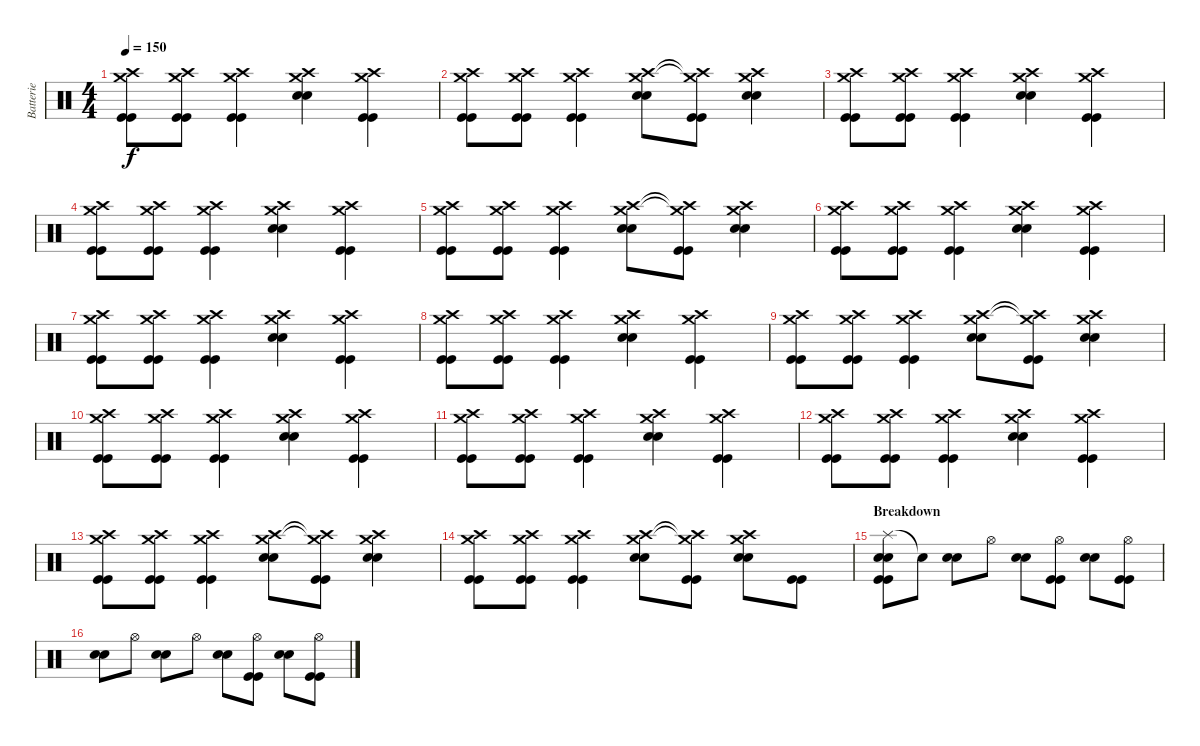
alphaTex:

\track ("Batterie" "Batterie") {instrument percussion}
\staff {score}
\articulation defaults
\ts (4 4)
\tempo 150
\clef neutral
\ks c
("Crash high (hit)" "Crash medium (hit)" "Kick (hit)" "Kick (hit)").8{dy f} ("Crash high (hit)" "Crash medium (hit)" "Kick (hit)" "Kick (hit)").8 ("Crash high (hit)" "Crash medium (hit)" "Kick (hit)" "Kick (hit)").4 ("Crash high (hit)" "Crash medium (hit)" "Electric Snare (hit)" "Electric Snare (hit)").4 ("Crash high (hit)" "Crash medium (hit)" "Kick (hit)" "Kick (hit)").4 |
("Crash high (hit)" "Crash medium (hit)" "Kick (hit)" "Kick (hit)").8 ("Crash high (hit)" "Crash medium (hit)" "Kick (hit)" "Kick (hit)").8 ("Crash high (hit)" "Crash medium (hit)" "Kick (hit)" "Kick (hit)").4 ("Crash high (hit)" "Crash medium (hit)" "Electric Snare (hit)" "Electric Snare (hit)").8 ("Crash high (hit)"{t} "Crash medium (hit)"{t} "Kick (hit)" "Kick (hit)").8 ("Crash high (hit)" "Crash medium (hit)" "Electric Snare (hit)" "Electric Snare (hit)").4 |
("Crash high (hit)" "Crash medium (hit)" "Kick (hit)" "Kick (hit)").8 ("Crash high (hit)" "Crash medium (hit)" "Kick (hit)" "Kick (hit)").8 ("Crash high (hit)" "Crash medium (hit)" "Kick (hit)" "Kick (hit)").4 ("Crash high (hit)" "Crash medium (hit)" "Electric Snare (hit)" "Electric Snare (hit)").4 ("Crash high (hit)" "Crash medium (hit)" "Kick (hit)" "Kick (hit)").4 |
("Crash high (hit)" "Crash medium (hit)" "Kick (hit)" "Kick (hit)").8 ("Crash high (hit)" "Crash medium (hit)" "Kick (hit)" "Kick (hit)").8 ("Crash high (hit)" "Crash medium (hit)" "Kick (hit)" "Kick (hit)").4 ("Crash high (hit)" "Crash medium (hit)" "Electric Snare (hit)" "Electric Snare (hit)").4 ("Crash high (hit)" "Crash medium (hit)" "Kick (hit)" "Kick (hit)").4 |
("Crash high (hit)" "Crash medium (hit)" "Kick (hit)" "Kick (hit)").8 ("Crash high (hit)" "Crash medium (hit)" "Kick (hit)" "Kick (hit)").8 ("Crash high (hit)" "Crash medium (hit)" "Kick (hit)" "Kick (hit)").4 ("Crash high (hit)" "Crash medium (hit)" "Electric Snare (hit)" "Electric Snare (hit)").8 ("Crash high (hit)"{t} "Crash medium (hit)"{t} "Kick (hit)" "Kick (hit)").8 ("Crash high (hit)" "Crash medium (hit)" "Electric Snare (hit)" "Electric Snare (hit)").4 |
("Crash high (hit)" "Crash medium (hit)" "Kick (hit)" "Kick (hit)").8 ("Crash high (hit)" "Crash medium (hit)" "Kick (hit)" "Kick (hit)").8 ("Crash high (hit)" "Crash medium (hit)" "Kick (hit)" "Kick (hit)").4 ("Crash high (hit)" "Crash medium (hit)" "Electric Snare (hit)" "Electric Snare (hit)").4 ("Crash high (hit)" "Crash medium (hit)" "Kick (hit)" "Kick (hit)").4 |
("Crash high (hit)" "Crash medium (hit)" "Kick (hit)" "Kick (hit)").8 ("Crash high (hit)" "Crash medium (hit)" "Kick (hit)" "Kick (hit)").8 ("Crash high (hit)" "Crash medium (hit)" "Kick (hit)" "Kick (hit)").4 ("Crash high (hit)" "Crash medium (hit)" "Electric Snare (hit)" "Electric Snare (hit)").4 ("Crash high (hit)" "Crash medium (hit)" "Kick (hit)" "Kick (hit)").4 |
("Crash high (hit)" "Crash medium (hit)" "Kick (hit)" "Kick (hit)").8 ("Crash high (hit)" "Crash medium (hit)" "Kick (hit)" "Kick (hit)").8 ("Crash high (hit)" "Crash medium (hit)" "Kick (hit)" "Kick (hit)").4 ("Crash high (hit)" "Crash medium (hit)" "Electric Snare (hit)" "Electric Snare (hit)").4 ("Crash high (hit)" "Crash medium (hit)" "Kick (hit)" "Kick (hit)").4 |
("Crash high (hit)" "Crash medium (hit)" "Kick (hit)" "Kick (hit)").8 ("Crash high (hit)" "Crash medium (hit)" "Kick (hit)" "Kick (hit)").8 ("Crash high (hit)" "Crash medium (hit)" "Kick (hit)" "Kick (hit)").4 ("Crash high (hit)" "Crash medium (hit)" "Electric Snare (hit)" "Electric Snare (hit)").8 ("Crash high (hit)"{t} "Crash medium (hit)"{t} "Kick (hit)" "Kick (hit)").8 ("Crash high (hit)" "Crash medium (hit)" "Electric Snare (hit)" "Electric Snare (hit)").4 |
("Crash high (hit)" "Crash medium (hit)" "Kick (hit)" "Kick (hit)").8 ("Crash high (hit)" "Crash medium (hit)" "Kick (hit)" "Kick (hit)").8 ("Crash high (hit)" "Crash medium (hit)" "Kick (hit)" "Kick (hit)").4 ("Crash high (hit)" "Crash medium (hit)" "Electric Snare (hit)" "Electric Snare (hit)").4 ("Crash high (hit)" "Crash medium (hit)" "Kick (hit)" "Kick (hit)").4 |
("Crash high (hit)" "Crash medium (hit)" "Kick (hit)" "Kick (hit)").8 ("Crash high (hit)" "Crash medium (hit)" "Kick (hit)" "Kick (hit)").8 ("Crash high (hit)" "Crash medium (hit)" "Kick (hit)" "Kick (hit)").4 ("Crash high (hit)" "Crash medium (hit)" "Electric Snare (hit)" "Electric Snare (hit)").4 ("Crash high (hit)" "Crash medium (hit)" "Kick (hit)" "Kick (hit)").4 |
("Crash high (hit)" "Crash medium (hit)" "Kick (hit)" "Kick (hit)").8 ("Crash high (hit)" "Crash medium (hit)" "Kick (hit)" "Kick (hit)").8 ("Crash high (hit)" "Crash medium (hit)" "Kick (hit)" "Kick (hit)").4 ("Crash high (hit)" "Crash medium (hit)" "Electric Snare (hit)" "Electric Snare (hit)").4 ("Crash high (hit)" "Crash medium (hit)" "Kick (hit)" "Kick (hit)").4 |
("Crash high (hit)" "Crash medium (hit)" "Kick (hit)" "Kick (hit)").8 ("Crash high (hit)" "Crash medium (hit)" "Kick (hit)" "Kick (hit)").8 ("Crash high (hit)" "Crash medium (hit)" "Kick (hit)" "Kick (hit)").4 ("Crash high (hit)" "Crash medium (hit)" "Electric Snare (hit)" "Electric Snare (hit)").8 ("Crash high (hit)"{t} "Crash medium (hit)"{t} "Kick (hit)" "Kick (hit)").8 ("Crash high (hit)" "Crash medium (hit)" "Electric Snare (hit)" "Electric Snare (hit)").4 |
("Crash high (hit)" "Crash medium (hit)" "Kick (hit)" "Kick (hit)").8 ("Crash high (hit)" "Crash medium (hit)" "Kick (hit)" "Kick (hit)").8 ("Crash high (hit)" "Crash medium (hit)" "Kick (hit)" "Kick (hit)").4 ("Crash high (hit)" "Crash medium (hit)" "Electric Snare (hit)" "Electric Snare (hit)").8 ("Crash high (hit)"{t} "Crash medium (hit)"{t} "Kick (hit)" "Kick (hit)").8 ("Crash high (hit)" "Crash medium (hit)" "Electric Snare (hit)" "Electric Snare (hit)").8 ("Kick (hit)" "Kick (hit)").8 |
\section ("" "Breakdown")
("Splash (hit)" "Electric Snare (hit)" "Electric Snare (hit)" "Kick (hit)" "Kick (hit)").8 "Snare (hit)"{t}.8 ("Electric Snare (hit)" "Electric Snare (hit)").8 "Hi-Hat (open)".8 ("Electric Snare (hit)" "Electric Snare (hit)").8 ("Hi-Hat (open)" "Kick (hit)" "Kick (hit)").8 ("Electric Snare (hit)" "Electric Snare (hit)").8 ("Hi-Hat (open)" "Kick (hit)" "Kick (hit)").8 |
("Electric Snare (hit)" "Electric Snare (hit)").8 "Hi-Hat (open)".8 ("Electric Snare (hit)" "Electric Snare (hit)").8 "Hi-Hat (open)".8 ("Electric Snare (hit)" "Electric Snare (hit)").8 ("Hi-Hat (open)" "Kick (hit)" "Kick (hit)").8 ("Electric Snare (hit)" "Electric Snare (hit)").8 ("Hi-Hat (open)" "Kick (hit)" "Kick (hit)").8
